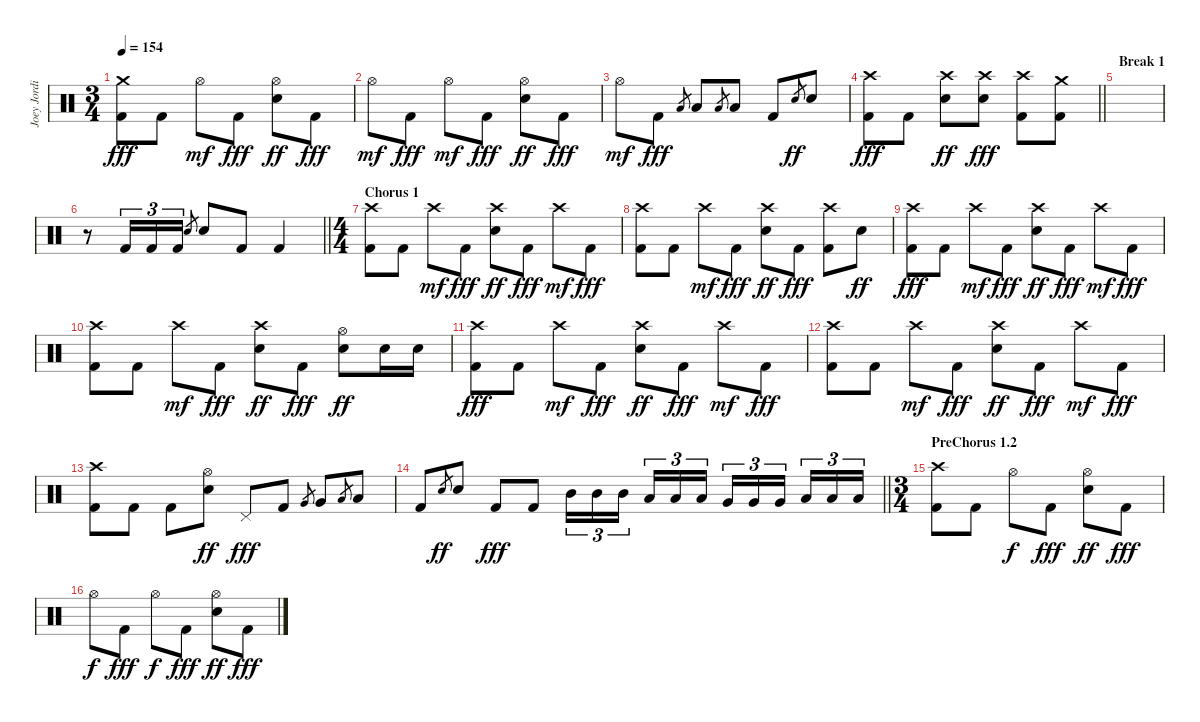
\track ("Joey Jordison" "Joey Jordi") {instrument percussion}
\staff {score}
\articulation defaults
\ts (3 4)
\tempo 154
\clef neutral
\ks c
("Crash medium (hit)" "Kick (hit) 2").8{dy fff} "Kick (hit) 2".8 "Hi-Hat (open)".8{dy mf} "Kick (hit) 2".8{dy fff} ("Hi-Hat (open)" "Electric Snare (hit)").8{dy ff} "Kick (hit) 2".8{dy fff} |
"Hi-Hat (open)".8{dy mf} "Kick (hit) 2".8{dy fff} "Hi-Hat (open)".8{dy mf} "Kick (hit) 2".8{dy fff} ("Hi-Hat (open)" "Electric Snare (hit)").8{dy ff} "Kick (hit) 2".8{dy fff} |
"Hi-Hat (open)".8{dy mf} "Kick (hit) 2".8{dy fff} "Low Tom (hit)".8{gr} "Low Tom (hit)".8 "Low Floor Tom (hit)".8{gr} "Low Floor Tom (hit)".8 "Kick (hit) 2".8 "Electric Snare (hit)".8{gr dy ff} "Electric Snare (hit)".8 |
\barLineRight lightlight
("Crash high (hit)" "Kick (hit) 2").8{dy fff} "Kick (hit) 2".8 ("Crash high (hit)" "Electric Snare (hit)").8{dy ff} ("Crash high (hit)" "Electric Snare (hit)").8{dy fff} ("Crash high (hit)" "Kick (hit) 2").8 ("Crash medium (hit)" "Kick (hit) 2").8 |
\section ("" "Break 1")
|
\barLineRight lightlight
r.8 "Kick (hit) 2".16{tu (3 2)} "Kick (hit) 2".16{tu (3 2)} "Kick (hit) 2".16{tu (3 2)} "Electric Snare (hit)".8{gr} "Electric Snare (hit)".8 "Kick (hit) 2".8 "Kick (hit) 2".4 |
\ts (4 4)
\section ("" "Chorus 1")
("Crash high (hit)" "Kick (hit) 2").8 "Kick (hit) 2".8 "Crash high (hit)".8{dy mf} "Kick (hit) 2".8{dy fff} ("Crash high (hit)" "Electric Snare (hit)").8{dy ff} "Kick (hit) 2".8{dy fff} "Crash high (hit)".8{dy mf} "Kick (hit) 2".8{dy fff} |
("Crash high (hit)" "Kick (hit) 2").8 "Kick (hit) 2".8 "Crash high (hit)".8{dy mf} "Kick (hit) 2".8{dy fff} ("Crash high (hit)" "Electric Snare (hit)").8{dy ff} "Kick (hit) 2".8{dy fff} ("Crash high (hit)" "Kick (hit) 2").8 "Electric Snare (hit)".8{dy ff} |
("Crash high (hit)" "Kick (hit) 2").8{dy fff} "Kick (hit) 2".8 "Crash high (hit)".8{dy mf} "Kick (hit) 2".8{dy fff} ("Crash high (hit)" "Electric Snare (hit)").8{dy ff} "Kick (hit) 2".8{dy fff} "Crash high (hit)".8{dy mf} "Kick (hit) 2".8{dy fff} |
("Crash high (hit)" "Kick (hit) 2").8 "Kick (hit) 2".8 "Crash high (hit)".8{dy mf} "Kick (hit) 2".8{dy fff} ("Crash high (hit)" "Electric Snare (hit)").8{dy ff} "Kick (hit) 2".8{dy fff} ("Hi-Hat (open)" "Electric Snare (hit)").8{dy ff} "Electric Snare (hit)".16 "Electric Snare (hit)".16 |
("Crash high (hit)" "Kick (hit) 2").8{dy fff} "Kick (hit) 2".8 "Crash high (hit)".8{dy mf} "Kick (hit) 2".8{dy fff} ("Crash high (hit)" "Electric Snare (hit)").8{dy ff} "Kick (hit) 2".8{dy fff} "Crash high (hit)".8{dy mf} "Kick (hit) 2".8{dy fff} |
("Crash high (hit)" "Kick (hit) 2").8 "Kick (hit) 2".8 "Crash high (hit)".8{dy mf} "Kick (hit) 2".8{dy fff} ("Crash high (hit)" "Electric Snare (hit)").8{dy ff} "Kick (hit) 2".8{dy fff} "Crash high (hit)".8{dy mf} "Kick (hit) 2".8{dy fff} |
("Crash high (hit)" "Kick (hit) 2").8 "Kick (hit) 2".8 "Kick (hit) 2".8 ("Hi-Hat (open)" "Electric Snare (hit)").8{dy ff} "Pedal Hi-Hat (hit)".8{dy fff} "Kick (hit) 2".8 "Very Low Tom (hit)".8{gr} "Very Low Tom (hit)".8 "Low Floor Tom (hit)".8{gr} "Low Floor Tom (hit)".8 |
\barLineRight lightlight "Kick (hit) 2".8 "Electric Snare (hit)".8{gr dy ff} "Electric Snare (hit)".8 "Kick (hit) 2".8{dy fff} "Kick (hit) 2".8 "Mid Tom (hit)".16{tu (3 2)} "Mid Tom (hit)".16{tu (3 2)} "Mid Tom (hit)".16{tu (3 2) beam splitsecondary} "Low Tom (hit)".16{tu (3 2)} "Low Tom (hit)".16{tu (3 2)} "Low Tom (hit)".16{tu (3 2)} "Very Low Tom (hit)".16{tu (3 2)} "Very Low Tom (hit)".16{tu (3 2)} "Very Low Tom (hit)".16{tu (3 2) beam splitsecondary} "Low Floor Tom (hit)".16{tu (3 2)} "Low Floor Tom (hit)".16{tu (3 2)} "Low Floor Tom (hit)".16{tu (3 2)}
|
\ts (3 4)
\section ("" "PreChorus 1.2")
("Crash high (hit)" "Kick (hit) 2").8 "Kick (hit) 2".8 "Hi-Hat (open)".8{dy f} "Kick (hit) 2".8{dy fff} ("Hi-Hat (open)" "Electric Snare (hit)").8{dy ff} "Kick (hit) 2".8{dy fff} |
"Hi-Hat (open)".8{dy f} "Kick (hit) 2".8{dy fff} "Hi-Hat (open)".8{dy f} "Kick (hit) 2".8{dy fff} ("Hi-Hat (open)" "Electric Snare (hit)").8{dy ff} "Kick (hit) 2".8{dy fff}
